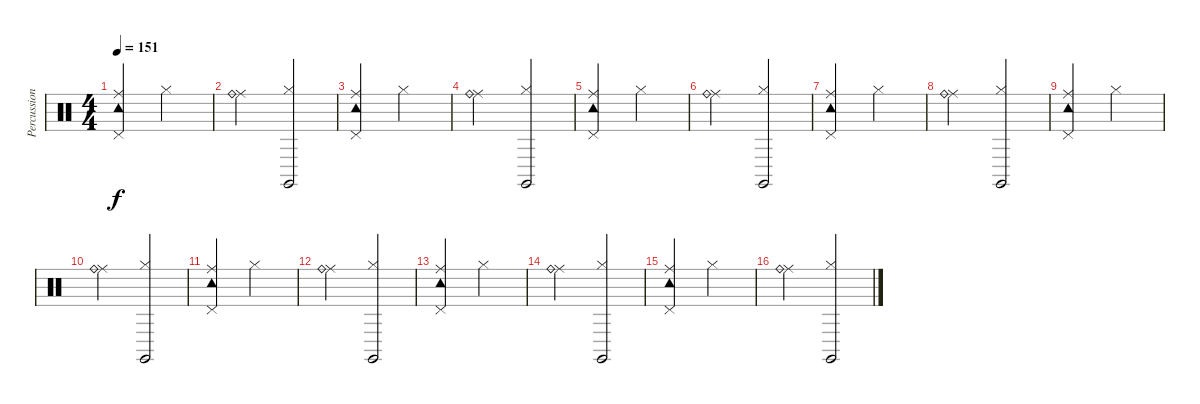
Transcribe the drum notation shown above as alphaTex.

\track ("Percussion" "Percussion") {instrument percussion}
\staff {score}
\articulation defaults
\ts (4 4)
\tempo 151
\clef neutral
\ks c
("Ride (middle)" "Tambourine (hit)" "Pedal Hi-Hat (hit)").2{dy f} "Hi-Hat (closed)".2 |
("Ride (middle)" "Ride (bell)").2 ("Hi-Hat (closed)" "Claves (hit)").2 |
("Ride (middle)" "Tambourine (hit)" "Pedal Hi-Hat (hit)").2 "Hi-Hat (closed)".2 |
("Ride (middle)" "Ride (bell)").2 ("Hi-Hat (closed)" "Claves (hit)").2 |
("Ride (middle)" "Tambourine (hit)" "Pedal Hi-Hat (hit)").2 "Hi-Hat (closed)".2 |
("Ride (middle)" "Ride (bell)").2 ("Hi-Hat (closed)" "Claves (hit)").2 |
("Ride (middle)" "Tambourine (hit)" "Pedal Hi-Hat (hit)").2 "Hi-Hat (closed)".2 |
("Ride (middle)" "Ride (bell)").2 ("Hi-Hat (closed)" "Claves (hit)").2 |
("Ride (middle)" "Tambourine (hit)" "Pedal Hi-Hat (hit)").2 "Hi-Hat (closed)".2 |
("Ride (middle)" "Ride (bell)").2 ("Hi-Hat (closed)" "Claves (hit)").2 |
("Ride (middle)" "Tambourine (hit)" "Pedal Hi-Hat (hit)").2 "Hi-Hat (closed)".2 |
("Ride (middle)" "Ride (bell)").2 ("Hi-Hat (closed)" "Claves (hit)").2 |
("Ride (middle)" "Tambourine (hit)" "Pedal Hi-Hat (hit)").2 "Hi-Hat (closed)".2 |
("Ride (middle)" "Ride (bell)").2 ("Hi-Hat (closed)" "Claves (hit)").2 |
("Ride (middle)" "Tambourine (hit)" "Pedal Hi-Hat (hit)").2 "Hi-Hat (closed)".2 |
("Ride (middle)" "Ride (bell)").2 ("Hi-Hat (closed)" "Claves (hit)").2
